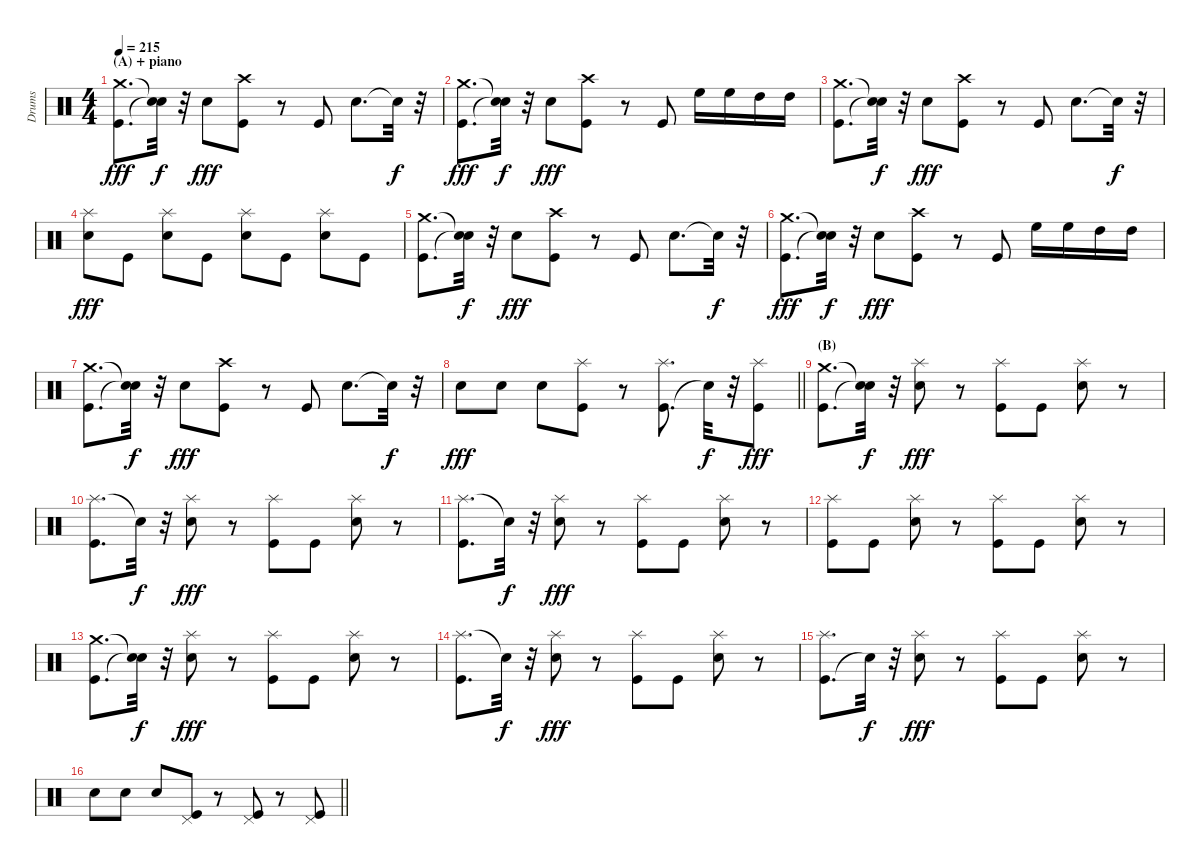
\track ("Drums" "Drums") {instrument percussion}
\staff {score}
\articulation defaults
\ts (4 4)
\section ("" "(A) + piano")
\tempo 215
\clef neutral
\ks c
("Kick (hit)" "Crash medium (hit)").8{d dy fff} ("Snare (hit)"{t} "Snare (hit)"{t}).32{dy f} r.32 "Electric Snare (hit)".8{dy fff} ("Crash high (hit)" "Kick (hit)").8 r.8 "Kick (hit)".8 "Electric Snare (hit)".8{d} "Snare (hit)"{t}.32{dy f} r.32 |
("Kick (hit)" "Crash medium (hit)").8{d dy fff} ("Snare (hit)"{t} "Snare (hit)"{t}).32{dy f} r.32 "Electric Snare (hit)".8{dy fff} ("Crash high (hit)" "Kick (hit)").8 r.8 "Kick (hit)".8 "High Floor Tom (hit)".16 "High Floor Tom (hit)".16 "High Tom (hit)".16 "High Tom (hit)".16 |
("Kick (hit)" "Crash medium (hit)").8{d} ("Snare (hit)"{t} "Snare (hit)"{t}).32{dy f} r.32 "Electric Snare (hit)".8{dy fff} ("Crash high (hit)" "Kick (hit)").8 r.8 "Kick (hit)".8 "Electric Snare (hit)".8{d} "Snare (hit)"{t}.32{dy f} r.32 |
("Electric Snare (hit)" "Splash (hit)").8{dy fff} "Kick (hit)".8 ("Electric Snare (hit)" "Splash (hit)").8 "Kick (hit)".8 ("Splash (hit)" "Electric Snare (hit)").8 "Kick (hit)".8 ("Splash (hit)" "Electric Snare (hit)").8 "Kick (hit)".8 |
("Crash medium (hit)" "Kick (hit)").8{d} ("Snare (hit)"{t} "Snare (hit)"{t}).32{dy f} r.32 "Electric Snare (hit)".8{dy fff} ("Kick (hit)" "Crash high (hit)").8 r.8 "Kick (hit)".8 "Electric Snare (hit)".8{d} "Snare (hit)"{t}.32{dy f} r.32 |
("Kick (hit)" "Crash medium (hit)").8{d dy fff} ("Snare (hit)"{t} "Snare (hit)"{t}).32{dy f} r.32 "Electric Snare (hit)".8{dy fff} ("Crash high (hit)" "Kick (hit)").8 r.8 "Kick (hit)".8 "High Floor Tom (hit)".16 "High Floor Tom (hit)".16 "High Tom (hit)".16 "High Tom (hit)".16 |
("Kick (hit)" "Crash medium (hit)").8{d} ("Snare (hit)"{t} "Snare (hit)"{t}).32{dy f} r.32 "Electric Snare (hit)".8{dy fff} ("Crash high (hit)" "Kick (hit)").8 r.8 "Kick (hit)".8 "Electric Snare (hit)".8{d} "Snare (hit)"{t}.32{dy f} r.32 |
\barLineRight lightlight "Snare (hit) 2".8{dy fff} "Snare (hit) 2".8 "Snare (hit) 2".8
("Kick (hit)" "Splash (hit)").8 r.8 ("Kick (hit)" "Splash (hit)").8{d} "Snare (hit)"{t}.32{dy f} r.32 ("Kick (hit)" "Splash (hit)").8{dy fff} |
\section ("" "(B)")
("Crash medium (hit)" "Kick (hit)").8{d} ("Snare (hit)"{t} "Snare (hit)"{t}).32{dy f} r.32 ("Electric Snare (hit)" "Splash (hit)").8{dy fff} r.8 ("Kick (hit)" "Splash (hit)").8 "Kick (hit)".8 ("Electric Snare (hit)" "Splash (hit)").8 r.8 |
("Splash (hit)" "Kick (hit)").8{d} "Snare (hit)"{t}.32{dy f} r.32 ("Splash (hit)" "Electric Snare (hit)").8{dy fff} r.8 ("Splash (hit)" "Kick (hit)").8 "Kick (hit)".8 ("Electric Snare (hit)" "Splash (hit)").8 r.8 |
("Splash (hit)" "Kick (hit)").8{d} "Snare (hit)"{t}.32{dy f} r.32 ("Electric Snare (hit)" "Splash (hit)").8{dy fff} r.8 ("Splash (hit)" "Kick (hit)").8 "Kick (hit)".8 ("Electric Snare (hit)" "Splash (hit)").8 r.8 |
("Splash (hit)" "Kick (hit)").8 "Kick (hit)".8 ("Splash (hit)" "Electric Snare (hit)").8 r.8 ("Kick (hit)" "Splash (hit)").8 "Kick (hit)".8 ("Electric Snare (hit)" "Splash (hit)").8 r.8 |
("Crash medium (hit)" "Kick (hit)").8{d} ("Snare (hit)"{t} "Snare (hit)"{t}).32{dy f} r.32 ("Electric Snare (hit)" "Splash (hit)").8{dy fff} r.8 ("Kick (hit)" "Splash (hit)").8 "Kick (hit)".8 ("Electric Snare (hit)" "Splash (hit)").8 r.8 |
("Splash (hit)" "Kick (hit)").8{d} "Snare (hit)"{t}.32{dy f} r.32 ("Splash (hit)" "Electric Snare (hit)").8{dy fff} r.8 ("Kick (hit)" "Splash (hit)").8 "Kick (hit)".8 ("Electric Snare (hit)" "Splash (hit)").8 r.8 |
("Kick (hit)" "Splash (hit)").8{d} "Snare (hit)"{t}.32{dy f} r.32 ("Electric Snare (hit)" "Splash (hit)").8{dy fff} r.8 ("Kick (hit)" "Splash (hit)").8 "Kick (hit)".8 ("Electric Snare (hit)" "Splash (hit)").8 r.8 |
\barLineRight lightlight "Electric Snare (hit)".8 "Electric Snare (hit)".8 "Electric Snare (hit)".8
("Pedal Hi-Hat (hit)" "Kick (hit)").8 r.8 ("Kick (hit)" "Pedal Hi-Hat (hit)").8 r.8 ("Kick (hit)" "Pedal Hi-Hat (hit)").8
